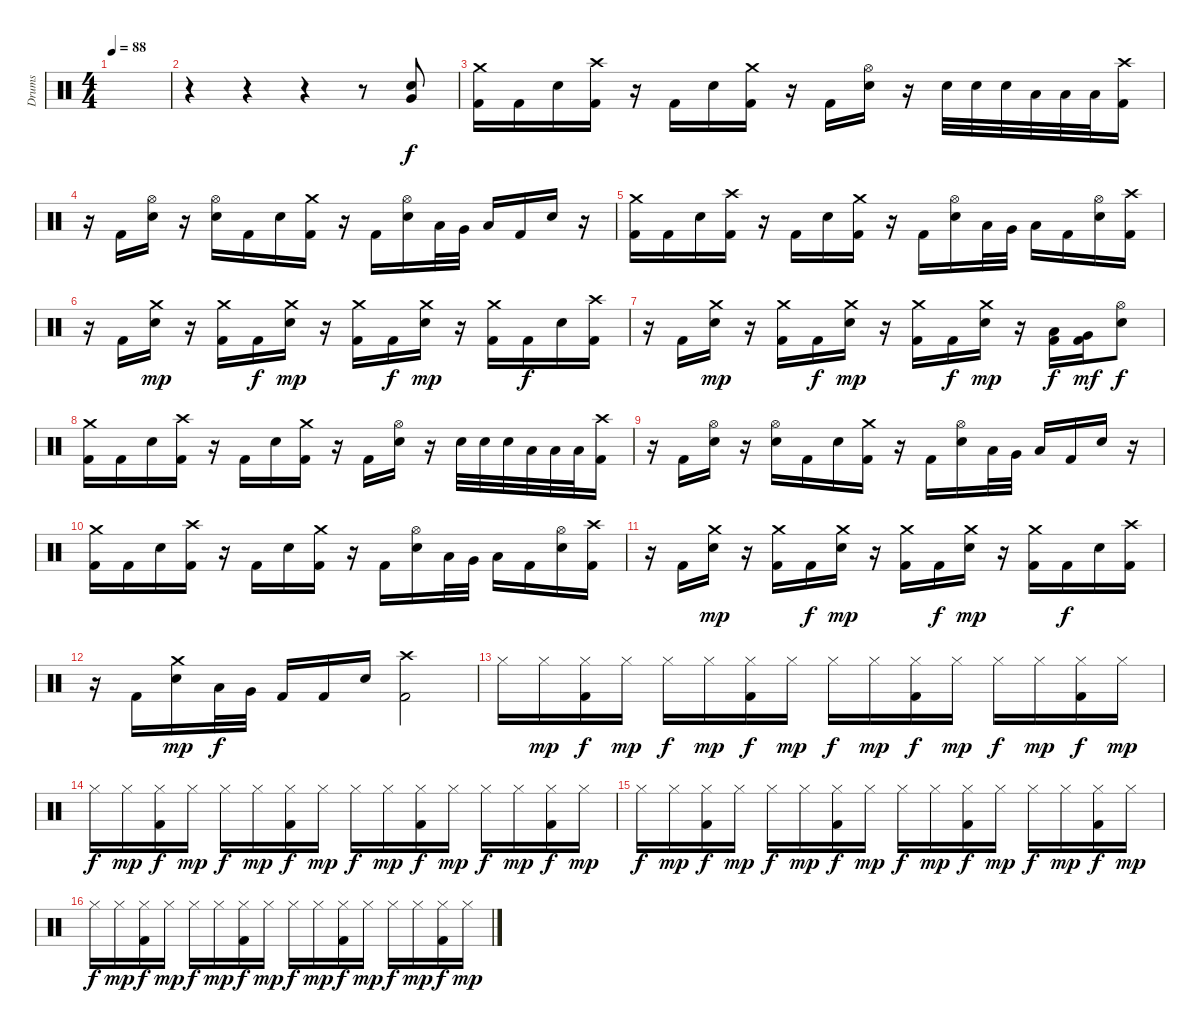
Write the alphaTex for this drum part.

\track ("Drums" "Drums") {instrument percussion}
\staff {score}
\articulation defaults
\ts (4 4)
\tempo 88
\clef neutral
\ks c
|
r.4 r.4 r.4 r.8 ("Very Low Tom (hit)" "Electric Snare (hit)").8 |
("Crash medium (hit)" "Kick (hit) 2").16 "Kick (hit) 2".16 "Electric Snare (hit)".16 ("Crash high (hit)" "Kick (hit) 2").16 r.16 "Kick (hit) 2".16 "Electric Snare (hit)".16 ("Crash medium (hit)" "Kick (hit) 2").16 r.16 "Kick (hit) 2".16 ("Hi-Hat (open)" "Electric Snare (hit)").16 r.16 "Electric Snare (hit)".32 "Electric Snare (hit)".32 "Electric Snare (hit)".32 "Low Tom (hit)".32 "Low Tom (hit)".32 "Low Tom (hit)".32 ("Crash high (hit)" "Kick (hit) 2").16 |
r.16 "Kick (hit) 2".16 ("Hi-Hat (open)" "Electric Snare (hit)").16 r.16 ("Hi-Hat (open)" "Electric Snare (hit)").16 "Kick (hit) 2".16 "Electric Snare (hit)".16 ("Crash medium (hit)" "Kick (hit) 2").16 r.16 "Kick (hit) 2".16 ("Hi-Hat (open)" "Electric Snare (hit)").16 "Low Tom (hit)".32 "Very Low Tom (hit)".32 "Low Floor Tom (hit)".16 "Kick (hit) 2".16 "Electric Snare (hit)".16 r.16 |
("Crash medium (hit)" "Kick (hit) 2").16 "Kick (hit) 2".16 "Electric Snare (hit)".16 ("Crash high (hit)" "Kick (hit) 2").16 r.16 "Kick (hit) 2".16 "Electric Snare (hit)".16 ("Crash medium (hit)" "Kick (hit) 2").16 r.16 "Kick (hit) 2".16 ("Hi-Hat (open)" "Electric Snare (hit)").16 "Low Tom (hit)".32 "Very Low Tom (hit)".32 "Low Floor Tom (hit)".16 "Kick (hit) 2".16 ("Hi-Hat (open)" "Electric Snare (hit)").16 ("Crash high (hit)" "Kick (hit) 2").16 |
r.16 "Kick (hit) 2".16 ("Crash medium (hit)" "Electric Snare (hit)").16{dy mp} r.16 ("Crash medium (hit)" "Kick (hit) 2").16 "Kick (hit) 2".16{dy f} ("Crash medium (hit)" "Electric Snare (hit)").16{dy mp} r.16 ("Crash medium (hit)" "Kick (hit) 2").16 "Kick (hit) 2".16{dy f} ("Crash medium (hit)" "Electric Snare (hit)").16{dy mp} r.16 ("Crash medium (hit)" "Kick (hit) 2").16 "Kick (hit) 2".16{dy f} "Electric Snare (hit)".16 ("Crash high (hit)" "Kick (hit) 2").16 |
r.16 "Kick (hit) 2".16 ("Crash medium (hit)" "Electric Snare (hit)").16{dy mp} r.16 ("Crash medium (hit)" "Kick (hit) 2").16 "Kick (hit) 2".16{dy f} ("Crash medium (hit)" "Electric Snare (hit)").16{dy mp} r.16 ("Crash medium (hit)" "Kick (hit) 2").16 "Kick (hit) 2".16{dy f} ("Crash medium (hit)" "Electric Snare (hit)").16{dy mp} r.16 ("Low Tom (hit)" "Kick (hit) 2").16{dy f} ("Very Low Tom (hit)" "Kick (hit) 2").16{dy mf} ("Hi-Hat (open)" "Electric Snare (hit)").8{dy f} |
("Crash medium (hit)" "Kick (hit) 2").16 "Kick (hit) 2".16 "Electric Snare (hit)".16 ("Crash high (hit)" "Kick (hit) 2").16 r.16 "Kick (hit) 2".16 "Electric Snare (hit)".16 ("Crash medium (hit)" "Kick (hit) 2").16 r.16 "Kick (hit) 2".16 ("Hi-Hat (open)" "Electric Snare (hit)").16 r.16 "Electric Snare (hit)".32 "Electric Snare (hit)".32 "Electric Snare (hit)".32 "Low Tom (hit)".32 "Low Tom (hit)".32 "Low Tom (hit)".32 ("Crash high (hit)" "Kick (hit) 2").16 |
r.16 "Kick (hit) 2".16 ("Hi-Hat (open)" "Electric Snare (hit)").16 r.16 ("Hi-Hat (open)" "Electric Snare (hit)").16 "Kick (hit) 2".16 "Electric Snare (hit)".16 ("Crash medium (hit)" "Kick (hit) 2").16 r.16 "Kick (hit) 2".16 ("Hi-Hat (open)" "Electric Snare (hit)").16 "Low Tom (hit)".32 "Very Low Tom (hit)".32 "Low Floor Tom (hit)".16 "Kick (hit) 2".16 "Electric Snare (hit)".16 r.16 |
("Crash medium (hit)" "Kick (hit) 2").16 "Kick (hit) 2".16 "Electric Snare (hit)".16 ("Crash high (hit)" "Kick (hit) 2").16 r.16 "Kick (hit) 2".16 "Electric Snare (hit)".16 ("Crash medium (hit)" "Kick (hit) 2").16 r.16 "Kick (hit) 2".16 ("Hi-Hat (open)" "Electric Snare (hit)").16 "Low Tom (hit)".32 "Very Low Tom (hit)".32 "Low Floor Tom (hit)".16 "Kick (hit) 2".16 ("Hi-Hat (open)" "Electric Snare (hit)").16 ("Crash high (hit)" "Kick (hit) 2").16 |
r.16 "Kick (hit) 2".16 ("Crash medium (hit)" "Electric Snare (hit)").16{dy mp} r.16 ("Crash medium (hit)" "Kick (hit) 2").16 "Kick (hit) 2".16{dy f} ("Crash medium (hit)" "Electric Snare (hit)").16{dy mp} r.16 ("Crash medium (hit)" "Kick (hit) 2").16 "Kick (hit) 2".16{dy f} ("Crash medium (hit)" "Electric Snare (hit)").16{dy mp} r.16 ("Crash medium (hit)" "Kick (hit) 2").16 "Kick (hit) 2".16{dy f} "Electric Snare (hit)".16 ("Crash high (hit)" "Kick (hit) 2").16 |
r.16 "Kick (hit) 2".16 ("Crash medium (hit)" "Electric Snare (hit)").16{dy mp} "Low Tom (hit)".32{dy f} "Very Low Tom (hit)".32 "Kick (hit) 2".16 "Kick (hit) 2".16 "Electric Snare (hit)".16 ("Crash high (hit)" "Kick (hit) 2").2 |
"Hi-Hat (closed)".16 "Hi-Hat (closed)".16{dy mp} ("Hi-Hat (closed)" "Kick (hit) 2").16{dy f} "Hi-Hat (closed)".16{dy mp} "Hi-Hat (closed)".16{dy f} "Hi-Hat (closed)".16{dy mp} ("Hi-Hat (closed)" "Kick (hit) 2").16{dy f} "Hi-Hat (closed)".16{dy mp} "Hi-Hat (closed)".16{dy f} "Hi-Hat (closed)".16{dy mp} ("Hi-Hat (closed)" "Kick (hit) 2").16{dy f} "Hi-Hat (closed)".16{dy mp} "Hi-Hat (closed)".16{dy f} "Hi-Hat (closed)".16{dy mp} ("Hi-Hat (closed)" "Kick (hit) 2").16{dy f} "Hi-Hat (closed)".16{dy mp} |
"Hi-Hat (closed)".16{dy f} "Hi-Hat (closed)".16{dy mp} ("Hi-Hat (closed)" "Kick (hit) 2").16{dy f} "Hi-Hat (closed)".16{dy mp} "Hi-Hat (closed)".16{dy f} "Hi-Hat (closed)".16{dy mp} ("Hi-Hat (closed)" "Kick (hit) 2").16{dy f} "Hi-Hat (closed)".16{dy mp} "Hi-Hat (closed)".16{dy f} "Hi-Hat (closed)".16{dy mp} ("Hi-Hat (closed)" "Kick (hit) 2").16{dy f} "Hi-Hat (closed)".16{dy mp} "Hi-Hat (closed)".16{dy f} "Hi-Hat (closed)".16{dy mp} ("Hi-Hat (closed)" "Kick (hit) 2").16{dy f} "Hi-Hat (closed)".16{dy mp} |
"Hi-Hat (closed)".16{dy f} "Hi-Hat (closed)".16{dy mp} ("Hi-Hat (closed)" "Kick (hit) 2").16{dy f} "Hi-Hat (closed)".16{dy mp} "Hi-Hat (closed)".16{dy f} "Hi-Hat (closed)".16{dy mp} ("Hi-Hat (closed)" "Kick (hit) 2").16{dy f} "Hi-Hat (closed)".16{dy mp} "Hi-Hat (closed)".16{dy f} "Hi-Hat (closed)".16{dy mp} ("Hi-Hat (closed)" "Kick (hit) 2").16{dy f} "Hi-Hat (closed)".16{dy mp} "Hi-Hat (closed)".16{dy f} "Hi-Hat (closed)".16{dy mp} ("Hi-Hat (closed)" "Kick (hit) 2").16{dy f} "Hi-Hat (closed)".16{dy mp} |
"Hi-Hat (closed)".16{dy f} "Hi-Hat (closed)".16{dy mp} ("Hi-Hat (closed)" "Kick (hit) 2").16{dy f} "Hi-Hat (closed)".16{dy mp} "Hi-Hat (closed)".16{dy f} "Hi-Hat (closed)".16{dy mp} ("Hi-Hat (closed)" "Kick (hit) 2").16{dy f} "Hi-Hat (closed)".16{dy mp} "Hi-Hat (closed)".16{dy f} "Hi-Hat (closed)".16{dy mp} ("Hi-Hat (closed)" "Kick (hit) 2").16{dy f} "Hi-Hat (closed)".16{dy mp} "Hi-Hat (closed)".16{dy f} "Hi-Hat (closed)".16{dy mp} ("Hi-Hat (closed)" "Kick (hit) 2").16{dy f} "Hi-Hat (closed)".16{dy mp}
